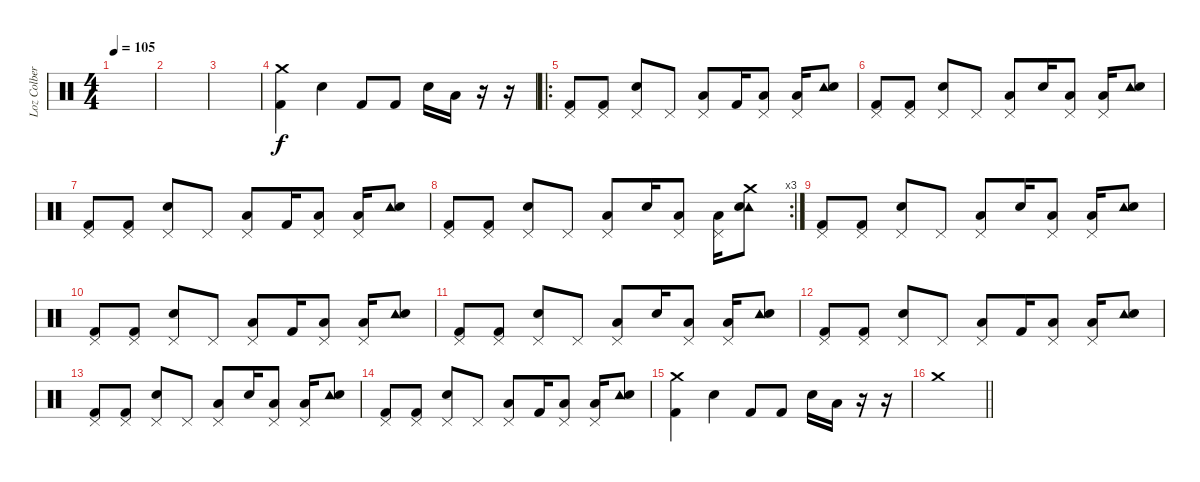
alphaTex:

\track ("Loz Colbert" "Loz Colber") {instrument percussion}
\staff {score}
\articulation defaults
\ts (4 4)
\tempo 105
\clef neutral
\ks c
|
|
|
("Crash medium (hit)" "Kick (hit) 2").4 "Snare (hit) 2".4 "Kick (hit) 2".8 "Kick (hit) 2".8 "Snare (hit) 2".16 "Low Tom (hit)".16 r.16 r.16 |
\ro
("Pedal Hi-Hat (hit)" "Kick (hit) 2").8 ("Pedal Hi-Hat (hit)" "Kick (hit) 2").8 ("Pedal Hi-Hat (hit)" "Snare (hit) 2").8 "Pedal Hi-Hat (hit)".8 ("Pedal Hi-Hat (hit)" "Low Tom (hit)").8 "Kick (hit) 2".16 ("Pedal Hi-Hat (hit)" "Low Tom (hit)").8 ("Pedal Hi-Hat (hit)" "Low Tom (hit)").16 ("Tambourine (hit)" "Snare (hit) 2").8 |
("Pedal Hi-Hat (hit)" "Kick (hit) 2").8 ("Pedal Hi-Hat (hit)" "Kick (hit) 2").8 ("Pedal Hi-Hat (hit)" "Snare (hit) 2").8 "Pedal Hi-Hat (hit)".8 ("Pedal Hi-Hat (hit)" "Low Tom (hit)").8 "Snare (hit) 2".16 ("Pedal Hi-Hat (hit)" "Low Tom (hit)").8 ("Pedal Hi-Hat (hit)" "Low Tom (hit)").16 ("Tambourine (hit)" "Snare (hit) 2").8 |
("Pedal Hi-Hat (hit)" "Kick (hit) 2").8 ("Pedal Hi-Hat (hit)" "Kick (hit) 2").8 ("Pedal Hi-Hat (hit)" "Snare (hit) 2").8 "Pedal Hi-Hat (hit)".8 ("Pedal Hi-Hat (hit)" "Low Tom (hit)").8 "Kick (hit) 2".16 ("Pedal Hi-Hat (hit)" "Low Tom (hit)").8 ("Pedal Hi-Hat (hit)" "Low Tom (hit)").16 ("Tambourine (hit)" "Snare (hit) 2").8 |
\rc 3
("Pedal Hi-Hat (hit)" "Kick (hit) 2").8 ("Pedal Hi-Hat (hit)" "Kick (hit) 2").8 ("Pedal Hi-Hat (hit)" "Snare (hit) 2").8 "Pedal Hi-Hat (hit)".8 ("Pedal Hi-Hat (hit)" "Low Tom (hit)").8 "Snare (hit) 2".16 ("Pedal Hi-Hat (hit)" "Low Tom (hit)").8 ("Pedal Hi-Hat (hit)" "Low Tom (hit)").16 ("Tambourine (hit)" "Crash medium (hit)" "Snare (hit) 2").8 |
("Pedal Hi-Hat (hit)" "Kick (hit) 2").8 ("Pedal Hi-Hat (hit)" "Kick (hit) 2").8 ("Pedal Hi-Hat (hit)" "Snare (hit) 2").8 "Pedal Hi-Hat (hit)".8 ("Pedal Hi-Hat (hit)" "Low Tom (hit)").8 "Snare (hit) 2".16 ("Pedal Hi-Hat (hit)" "Low Tom (hit)").8 ("Pedal Hi-Hat (hit)" "Low Tom (hit)").16 ("Tambourine (hit)" "Snare (hit) 2").8 |
("Pedal Hi-Hat (hit)" "Kick (hit) 2").8 ("Pedal Hi-Hat (hit)" "Kick (hit) 2").8 ("Pedal Hi-Hat (hit)" "Snare (hit) 2").8 "Pedal Hi-Hat (hit)".8 ("Pedal Hi-Hat (hit)" "Low Tom (hit)").8 "Kick (hit) 2".16 ("Pedal Hi-Hat (hit)" "Low Tom (hit)").8 ("Pedal Hi-Hat (hit)" "Low Tom (hit)").16 ("Tambourine (hit)" "Snare (hit) 2").8 |
("Pedal Hi-Hat (hit)" "Kick (hit) 2").8 ("Pedal Hi-Hat (hit)" "Kick (hit) 2").8 ("Pedal Hi-Hat (hit)" "Snare (hit) 2").8 "Pedal Hi-Hat (hit)".8 ("Pedal Hi-Hat (hit)" "Low Tom (hit)").8 "Snare (hit) 2".16 ("Pedal Hi-Hat (hit)" "Low Tom (hit)").8 ("Pedal Hi-Hat (hit)" "Low Tom (hit)").16 ("Tambourine (hit)" "Snare (hit) 2").8 |
("Pedal Hi-Hat (hit)" "Kick (hit) 2").8 ("Pedal Hi-Hat (hit)" "Kick (hit) 2").8 ("Pedal Hi-Hat (hit)" "Snare (hit) 2").8 "Pedal Hi-Hat (hit)".8 ("Pedal Hi-Hat (hit)" "Low Tom (hit)").8 "Kick (hit) 2".16 ("Pedal Hi-Hat (hit)" "Low Tom (hit)").8 ("Pedal Hi-Hat (hit)" "Low Tom (hit)").16 ("Tambourine (hit)" "Snare (hit) 2").8 |
("Pedal Hi-Hat (hit)" "Kick (hit) 2").8 ("Pedal Hi-Hat (hit)" "Kick (hit) 2").8 ("Pedal Hi-Hat (hit)" "Snare (hit) 2").8 "Pedal Hi-Hat (hit)".8 ("Pedal Hi-Hat (hit)" "Low Tom (hit)").8 "Snare (hit) 2".16 ("Pedal Hi-Hat (hit)" "Low Tom (hit)").8 ("Pedal Hi-Hat (hit)" "Low Tom (hit)").16 ("Tambourine (hit)" "Snare (hit) 2").8 |
("Pedal Hi-Hat (hit)" "Kick (hit) 2").8 ("Pedal Hi-Hat (hit)" "Kick (hit) 2").8 ("Pedal Hi-Hat (hit)" "Snare (hit) 2").8 "Pedal Hi-Hat (hit)".8 ("Pedal Hi-Hat (hit)" "Low Tom (hit)").8 "Kick (hit) 2".16 ("Pedal Hi-Hat (hit)" "Low Tom (hit)").8 ("Pedal Hi-Hat (hit)" "Low Tom (hit)").16 ("Tambourine (hit)" "Snare (hit) 2").8 |
("Crash medium (hit)" "Kick (hit) 2").4 "Snare (hit) 2".4 "Kick (hit) 2".8 "Kick (hit) 2".8 "Snare (hit) 2".16 "Low Tom (hit)".16 r.16 r.16 |
\barLineRight lightlight "Crash medium (hit)".1
